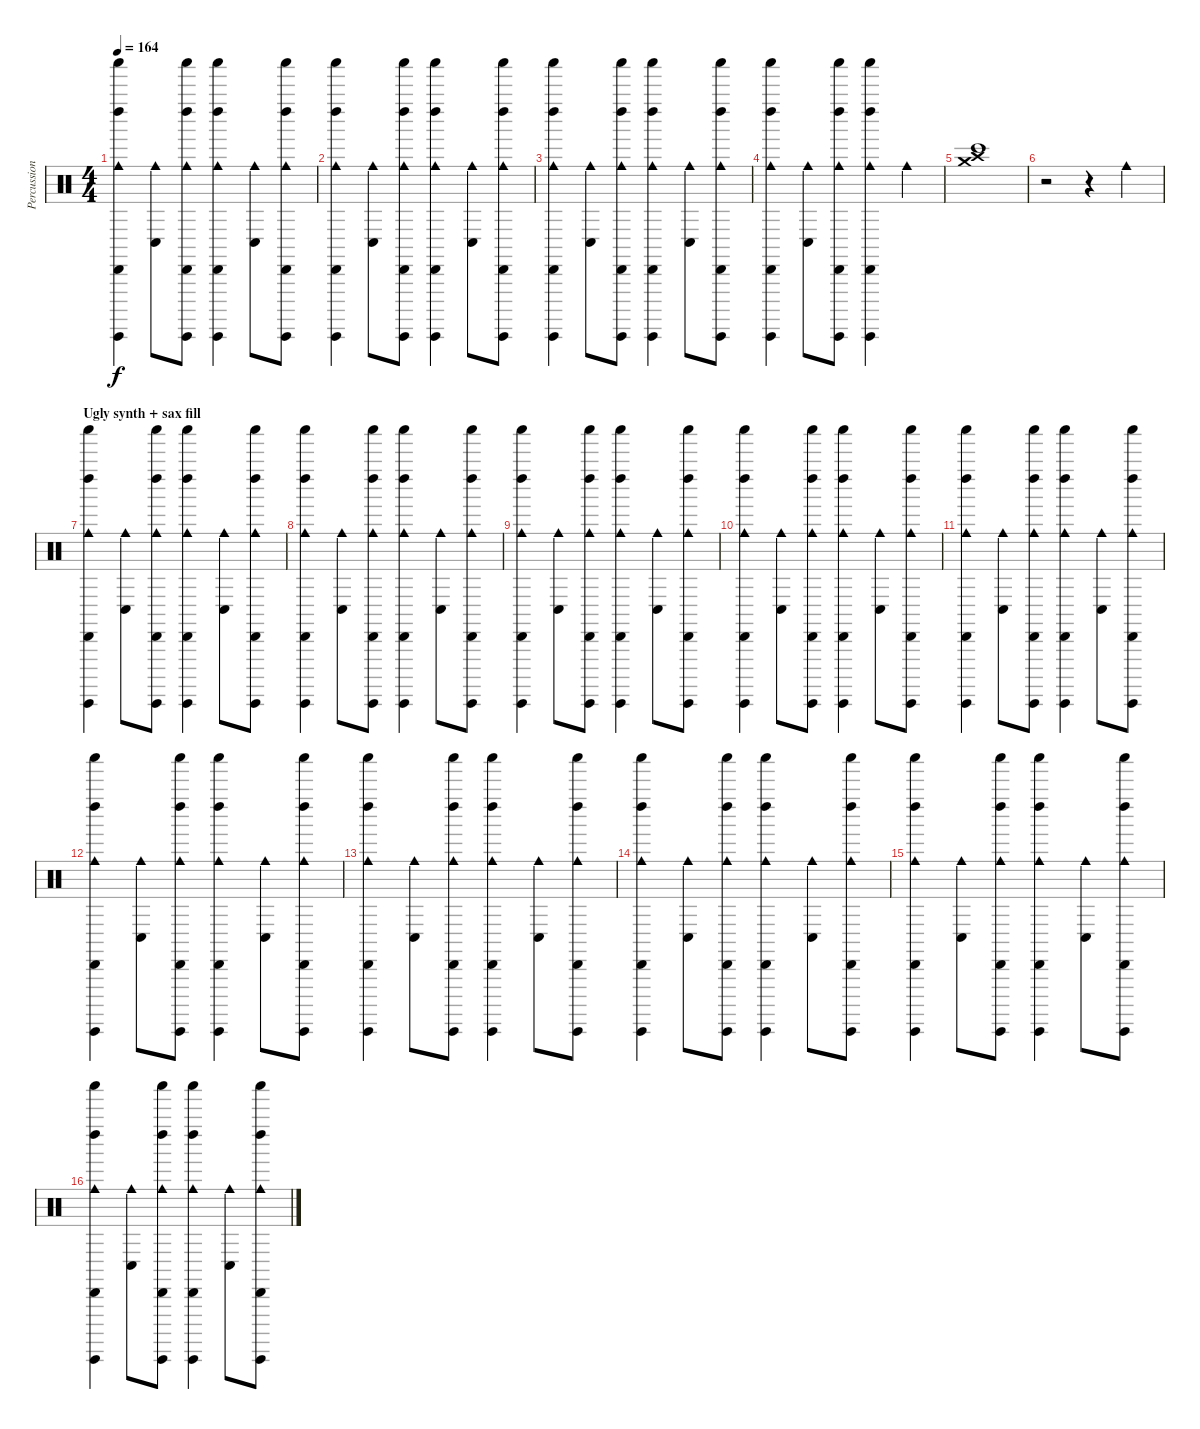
\track ("Percussion" "Percussion") {instrument percussion}
\staff {score}
\articulation defaults
\ts (4 4)
\tempo 164
\clef neutral
\ks c
("Shaker (hit)" "Guiro (hit)" "Left Maraca (hit)" "Cabasa (hit)" "Cowbell medium (hit)").4{dy f} ("Conga low (hit)" "Cowbell medium (hit)").8 ("Shaker (hit)" "Guiro (hit)" "Left Maraca (hit)" "Cabasa (hit)" "Cowbell medium (hit)").8 ("Shaker (hit)" "Guiro (hit)" "Left Maraca (hit)" "Cabasa (hit)" "Cowbell medium (hit)").4 ("Conga low (hit)" "Cowbell medium (hit)").8 ("Shaker (hit)" "Guiro (hit)" "Left Maraca (hit)" "Cabasa (hit)" "Cowbell medium (hit)").8 |
("Shaker (hit)" "Guiro (hit)" "Left Maraca (hit)" "Cabasa (hit)" "Cowbell medium (hit)").4 ("Conga low (hit)" "Cowbell medium (hit)").8 ("Shaker (hit)" "Guiro (hit)" "Left Maraca (hit)" "Cabasa (hit)" "Cowbell medium (hit)").8 ("Shaker (hit)" "Guiro (hit)" "Left Maraca (hit)" "Cabasa (hit)" "Cowbell medium (hit)").4 ("Conga low (hit)" "Cowbell medium (hit)").8 ("Shaker (hit)" "Guiro (hit)" "Left Maraca (hit)" "Cabasa (hit)" "Cowbell medium (hit)").8 |
("Shaker (hit)" "Guiro (hit)" "Left Maraca (hit)" "Cabasa (hit)" "Cowbell medium (hit)").4 ("Conga low (hit)" "Cowbell medium (hit)").8 ("Shaker (hit)" "Guiro (hit)" "Left Maraca (hit)" "Cabasa (hit)" "Cowbell medium (hit)").8 ("Shaker (hit)" "Guiro (hit)" "Left Maraca (hit)" "Cabasa (hit)" "Cowbell medium (hit)").4 ("Conga low (hit)" "Cowbell medium (hit)").8 ("Shaker (hit)" "Guiro (hit)" "Left Maraca (hit)" "Cabasa (hit)" "Cowbell medium (hit)").8 |
("Shaker (hit)" "Guiro (hit)" "Left Maraca (hit)" "Cabasa (hit)" "Cowbell medium (hit)").4 ("Conga low (hit)" "Cowbell medium (hit)").8 ("Shaker (hit)" "Guiro (hit)" "Left Maraca (hit)" "Cabasa (hit)" "Cowbell medium (hit)").8 ("Shaker (hit)" "Guiro (hit)" "Left Maraca (hit)" "Cabasa (hit)" "Cowbell medium (hit)").4 "Cowbell medium (hit)".4 |
("Crash high (hit)" "Crash medium (hit)" "Bongo High (hit)").1 |
r.2 r.4 "Cowbell medium (hit)".4 |
\section ("" "Ugly synth + sax fill")
("Shaker (hit)" "Guiro (hit)" "Left Maraca (hit)" "Cabasa (hit)" "Cowbell medium (hit)").4 ("Conga low (hit)" "Cowbell medium (hit)").8 ("Shaker (hit)" "Guiro (hit)" "Left Maraca (hit)" "Cabasa (hit)" "Cowbell medium (hit)").8 ("Shaker (hit)" "Guiro (hit)" "Left Maraca (hit)" "Cabasa (hit)" "Cowbell medium (hit)").4 ("Conga low (hit)" "Cowbell medium (hit)").8 ("Shaker (hit)" "Guiro (hit)" "Left Maraca (hit)" "Cabasa (hit)" "Cowbell medium (hit)").8 |
("Shaker (hit)" "Guiro (hit)" "Left Maraca (hit)" "Cabasa (hit)" "Cowbell medium (hit)").4 ("Conga low (hit)" "Cowbell medium (hit)").8 ("Shaker (hit)" "Guiro (hit)" "Left Maraca (hit)" "Cabasa (hit)" "Cowbell medium (hit)").8 ("Shaker (hit)" "Guiro (hit)" "Left Maraca (hit)" "Cabasa (hit)" "Cowbell medium (hit)").4 ("Conga low (hit)" "Cowbell medium (hit)").8 ("Shaker (hit)" "Guiro (hit)" "Left Maraca (hit)" "Cabasa (hit)" "Cowbell medium (hit)").8 |
("Shaker (hit)" "Guiro (hit)" "Left Maraca (hit)" "Cabasa (hit)" "Cowbell medium (hit)").4 ("Conga low (hit)" "Cowbell medium (hit)").8 ("Shaker (hit)" "Guiro (hit)" "Left Maraca (hit)" "Cabasa (hit)" "Cowbell medium (hit)").8 ("Shaker (hit)" "Guiro (hit)" "Left Maraca (hit)" "Cabasa (hit)" "Cowbell medium (hit)").4 ("Conga low (hit)" "Cowbell medium (hit)").8 ("Shaker (hit)" "Guiro (hit)" "Left Maraca (hit)" "Cabasa (hit)" "Cowbell medium (hit)").8 |
("Shaker (hit)" "Guiro (hit)" "Left Maraca (hit)" "Cabasa (hit)" "Cowbell medium (hit)").4 ("Conga low (hit)" "Cowbell medium (hit)").8 ("Shaker (hit)" "Guiro (hit)" "Left Maraca (hit)" "Cabasa (hit)" "Cowbell medium (hit)").8 ("Shaker (hit)" "Guiro (hit)" "Left Maraca (hit)" "Cabasa (hit)" "Cowbell medium (hit)").4 ("Conga low (hit)" "Cowbell medium (hit)").8 ("Shaker (hit)" "Guiro (hit)" "Left Maraca (hit)" "Cabasa (hit)" "Cowbell medium (hit)").8 |
("Shaker (hit)" "Guiro (hit)" "Left Maraca (hit)" "Cabasa (hit)" "Cowbell medium (hit)").4 ("Conga low (hit)" "Cowbell medium (hit)").8 ("Shaker (hit)" "Guiro (hit)" "Left Maraca (hit)" "Cabasa (hit)" "Cowbell medium (hit)").8 ("Shaker (hit)" "Guiro (hit)" "Left Maraca (hit)" "Cabasa (hit)" "Cowbell medium (hit)").4 ("Conga low (hit)" "Cowbell medium (hit)").8 ("Shaker (hit)" "Guiro (hit)" "Left Maraca (hit)" "Cabasa (hit)" "Cowbell medium (hit)").8 |
("Shaker (hit)" "Guiro (hit)" "Left Maraca (hit)" "Cabasa (hit)" "Cowbell medium (hit)").4 ("Conga low (hit)" "Cowbell medium (hit)").8 ("Shaker (hit)" "Guiro (hit)" "Left Maraca (hit)" "Cabasa (hit)" "Cowbell medium (hit)").8 ("Shaker (hit)" "Guiro (hit)" "Left Maraca (hit)" "Cabasa (hit)" "Cowbell medium (hit)").4 ("Conga low (hit)" "Cowbell medium (hit)").8 ("Shaker (hit)" "Guiro (hit)" "Left Maraca (hit)" "Cabasa (hit)" "Cowbell medium (hit)").8 |
("Shaker (hit)" "Guiro (hit)" "Left Maraca (hit)" "Cabasa (hit)" "Cowbell medium (hit)").4 ("Conga low (hit)" "Cowbell medium (hit)").8 ("Shaker (hit)" "Guiro (hit)" "Left Maraca (hit)" "Cabasa (hit)" "Cowbell medium (hit)").8 ("Shaker (hit)" "Guiro (hit)" "Left Maraca (hit)" "Cabasa (hit)" "Cowbell medium (hit)").4 ("Conga low (hit)" "Cowbell medium (hit)").8 ("Shaker (hit)" "Guiro (hit)" "Left Maraca (hit)" "Cabasa (hit)" "Cowbell medium (hit)").8 |
("Shaker (hit)" "Guiro (hit)" "Left Maraca (hit)" "Cabasa (hit)" "Cowbell medium (hit)").4 ("Conga low (hit)" "Cowbell medium (hit)").8 ("Shaker (hit)" "Guiro (hit)" "Left Maraca (hit)" "Cabasa (hit)" "Cowbell medium (hit)").8 ("Shaker (hit)" "Guiro (hit)" "Left Maraca (hit)" "Cabasa (hit)" "Cowbell medium (hit)").4 ("Conga low (hit)" "Cowbell medium (hit)").8 ("Shaker (hit)" "Guiro (hit)" "Left Maraca (hit)" "Cabasa (hit)" "Cowbell medium (hit)").8 |
("Shaker (hit)" "Guiro (hit)" "Left Maraca (hit)" "Cabasa (hit)" "Cowbell medium (hit)").4 ("Conga low (hit)" "Cowbell medium (hit)").8 ("Shaker (hit)" "Guiro (hit)" "Left Maraca (hit)" "Cabasa (hit)" "Cowbell medium (hit)").8 ("Shaker (hit)" "Guiro (hit)" "Left Maraca (hit)" "Cabasa (hit)" "Cowbell medium (hit)").4 ("Conga low (hit)" "Cowbell medium (hit)").8 ("Shaker (hit)" "Guiro (hit)" "Left Maraca (hit)" "Cabasa (hit)" "Cowbell medium (hit)").8 |
("Shaker (hit)" "Guiro (hit)" "Left Maraca (hit)" "Cabasa (hit)" "Cowbell medium (hit)").4 ("Conga low (hit)" "Cowbell medium (hit)").8 ("Shaker (hit)" "Guiro (hit)" "Left Maraca (hit)" "Cabasa (hit)" "Cowbell medium (hit)").8 ("Shaker (hit)" "Guiro (hit)" "Left Maraca (hit)" "Cabasa (hit)" "Cowbell medium (hit)").4 ("Conga low (hit)" "Cowbell medium (hit)").8 ("Shaker (hit)" "Guiro (hit)" "Left Maraca (hit)" "Cabasa (hit)" "Cowbell medium (hit)").8
